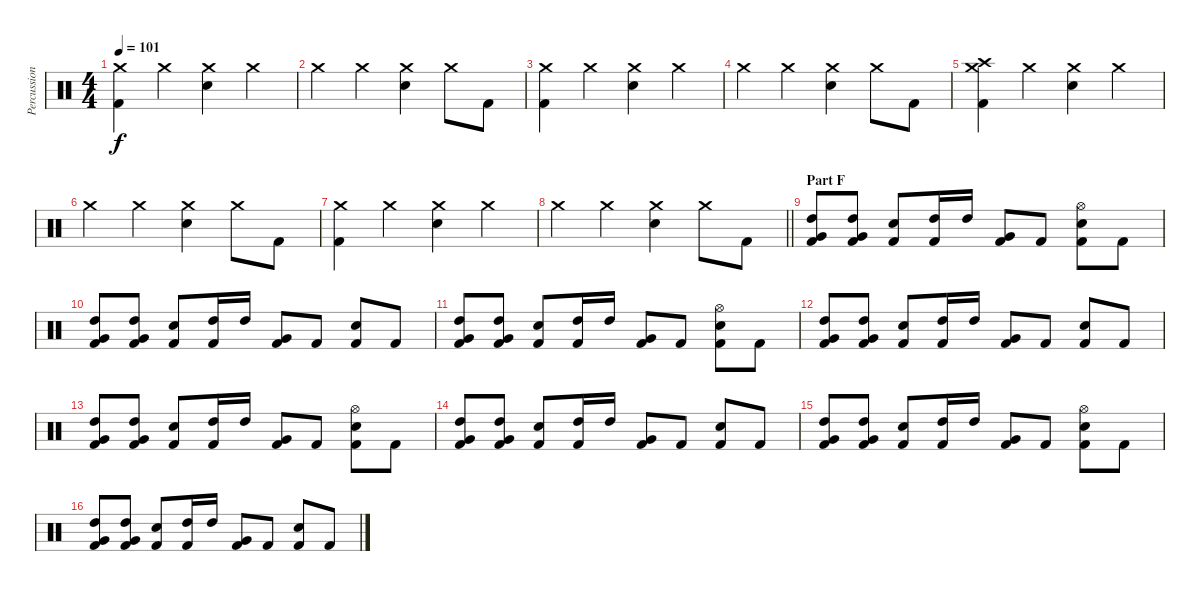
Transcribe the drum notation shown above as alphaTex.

\track ("Percussion" "Percussion") {instrument percussion}
\staff {score}
\articulation defaults
\ts (4 4)
\tempo 101
\clef neutral
\ks c
("Crash medium (hit)" "Kick (hit) 2").4{dy f} "Crash medium (hit)".4 ("Crash medium (hit)" "Electric Snare (hit)").4 "Crash medium (hit)".4 |
"Crash medium (hit)".4 "Crash medium (hit)".4 ("Crash medium (hit)" "Electric Snare (hit)").4 "Crash medium (hit)".8 "Kick (hit) 2".8 |
("Crash medium (hit)" "Kick (hit) 2").4 "Crash medium (hit)".4 ("Crash medium (hit)" "Electric Snare (hit)").4 "Crash medium (hit)".4 |
"Crash medium (hit)".4 "Crash medium (hit)".4 ("Crash medium (hit)" "Electric Snare (hit)").4 "Crash medium (hit)".8 "Kick (hit) 2".8 |
("Crash high (hit)" "Crash medium (hit)" "Kick (hit) 2").4 "Crash medium (hit)".4 ("Crash medium (hit)" "Electric Snare (hit)").4 "Crash medium (hit)".4 |
"Crash medium (hit)".4 "Crash medium (hit)".4 ("Crash medium (hit)" "Electric Snare (hit)").4 "Crash medium (hit)".8 "Kick (hit) 2".8 |
("Crash medium (hit)" "Kick (hit) 2").4 "Crash medium (hit)".4 ("Crash medium (hit)" "Electric Snare (hit)").4 "Crash medium (hit)".4 |
\barLineRight lightlight "Crash medium (hit)".4 "Crash medium (hit)".4
("Crash medium (hit)" "Electric Snare (hit)").4 "Crash medium (hit)".8 "Kick (hit) 2".8 |
\section ("" "Part F")
("High Tom (hit)" "Very Low Tom (hit)" "Kick (hit) 2").8 ("High Tom (hit)" "Very Low Tom (hit)" "Kick (hit) 2").8 ("Electric Snare (hit)" "Kick (hit) 2").8 ("High Tom (hit)" "Kick (hit) 2").16 "High Tom (hit)".16 ("Very Low Tom (hit)" "Kick (hit) 2").8 "Kick (hit) 2".8 ("Electric Snare (hit)" "Hi-Hat (open)" "Kick (hit) 2").8 "Kick (hit) 2".8 |
("High Tom (hit)" "Very Low Tom (hit)" "Kick (hit) 2").8 ("High Tom (hit)" "Very Low Tom (hit)" "Kick (hit) 2").8 ("Electric Snare (hit)" "Kick (hit) 2").8 ("High Tom (hit)" "Kick (hit) 2").16 "High Tom (hit)".16 ("Very Low Tom (hit)" "Kick (hit) 2").8 "Kick (hit) 2".8 ("Electric Snare (hit)" "Kick (hit) 2").8 "Kick (hit) 2".8 |
("High Tom (hit)" "Very Low Tom (hit)" "Kick (hit) 2").8 ("High Tom (hit)" "Very Low Tom (hit)" "Kick (hit) 2").8 ("Electric Snare (hit)" "Kick (hit) 2").8 ("High Tom (hit)" "Kick (hit) 2").16 "High Tom (hit)".16 ("Very Low Tom (hit)" "Kick (hit) 2").8 "Kick (hit) 2".8 ("Electric Snare (hit)" "Hi-Hat (open)" "Kick (hit) 2").8 "Kick (hit) 2".8 |
("High Tom (hit)" "Very Low Tom (hit)" "Kick (hit) 2").8 ("High Tom (hit)" "Very Low Tom (hit)" "Kick (hit) 2").8 ("Electric Snare (hit)" "Kick (hit) 2").8 ("High Tom (hit)" "Kick (hit) 2").16 "High Tom (hit)".16 ("Very Low Tom (hit)" "Kick (hit) 2").8 "Kick (hit) 2".8 ("Electric Snare (hit)" "Kick (hit) 2").8 "Kick (hit) 2".8 |
("High Tom (hit)" "Very Low Tom (hit)" "Kick (hit) 2").8 ("High Tom (hit)" "Very Low Tom (hit)" "Kick (hit) 2").8 ("Electric Snare (hit)" "Kick (hit) 2").8 ("High Tom (hit)" "Kick (hit) 2").16 "High Tom (hit)".16 ("Very Low Tom (hit)" "Kick (hit) 2").8 "Kick (hit) 2".8 ("Electric Snare (hit)" "Hi-Hat (open)" "Kick (hit) 2").8 "Kick (hit) 2".8 |
("High Tom (hit)" "Very Low Tom (hit)" "Kick (hit) 2").8 ("High Tom (hit)" "Very Low Tom (hit)" "Kick (hit) 2").8 ("Electric Snare (hit)" "Kick (hit) 2").8 ("High Tom (hit)" "Kick (hit) 2").16 "High Tom (hit)".16 ("Very Low Tom (hit)" "Kick (hit) 2").8 "Kick (hit) 2".8 ("Electric Snare (hit)" "Kick (hit) 2").8 "Kick (hit) 2".8 |
("High Tom (hit)" "Very Low Tom (hit)" "Kick (hit) 2").8 ("High Tom (hit)" "Very Low Tom (hit)" "Kick (hit) 2").8 ("Electric Snare (hit)" "Kick (hit) 2").8 ("High Tom (hit)" "Kick (hit) 2").16 "High Tom (hit)".16 ("Very Low Tom (hit)" "Kick (hit) 2").8 "Kick (hit) 2".8 ("Electric Snare (hit)" "Hi-Hat (open)" "Kick (hit) 2").8 "Kick (hit) 2".8 |
("High Tom (hit)" "Very Low Tom (hit)" "Kick (hit) 2").8 ("High Tom (hit)" "Very Low Tom (hit)" "Kick (hit) 2").8 ("Electric Snare (hit)" "Kick (hit) 2").8 ("High Tom (hit)" "Kick (hit) 2").16 "High Tom (hit)".16 ("Very Low Tom (hit)" "Kick (hit) 2").8 "Kick (hit) 2".8 ("Electric Snare (hit)" "Kick (hit) 2").8 "Kick (hit) 2".8
